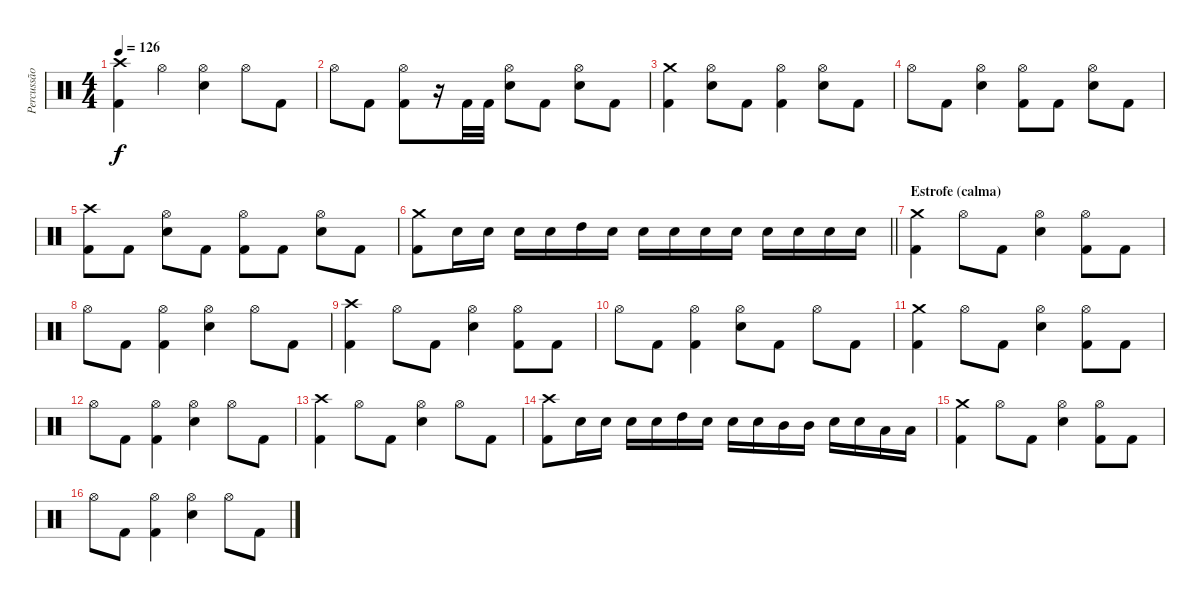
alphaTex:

\track ("Percussão" "Percussão") {instrument percussion}
\staff {score}
\articulation defaults
\ts (4 4)
\tempo 126
\clef neutral
\ks c
("Crash high (hit)" "Kick (hit) 2").4{dy f} "Hi-Hat (open)".4 ("Hi-Hat (open)" "Electric Snare (hit)").4 "Hi-Hat (open)".8 "Kick (hit) 2".8 |
"Hi-Hat (open)".8 "Kick (hit) 2".8 ("Hi-Hat (open)" "Kick (hit) 2").8 r.16 "Kick (hit) 2".32 "Kick (hit) 2".32 ("Hi-Hat (open)" "Electric Snare (hit)").8 "Kick (hit) 2".8 ("Hi-Hat (open)" "Electric Snare (hit)").8 "Kick (hit) 2".8 |
("Crash medium (hit)" "Kick (hit) 2").4 ("Hi-Hat (open)" "Electric Snare (hit)").8 "Kick (hit) 2".8 ("Hi-Hat (open)" "Kick (hit) 2").4 ("Hi-Hat (open)" "Electric Snare (hit)").8 "Kick (hit) 2".8 |
"Hi-Hat (open)".8 "Kick (hit) 2".8 ("Hi-Hat (open)" "Electric Snare (hit)").4 ("Hi-Hat (open)" "Kick (hit) 2").8 "Kick (hit) 2".8 ("Hi-Hat (open)" "Electric Snare (hit)").8 "Kick (hit) 2".8 |
("Crash high (hit)" "Kick (hit) 2").8 "Kick (hit) 2".8 ("Hi-Hat (open)" "Electric Snare (hit)").8 "Kick (hit) 2".8 ("Hi-Hat (open)" "Kick (hit) 2").8 "Kick (hit) 2".8 ("Hi-Hat (open)" "Electric Snare (hit)").8 "Kick (hit) 2".8 |
\barLineRight lightlight
("Crash medium (hit)" "Kick (hit) 2").8 "Electric Snare (hit)".16 "Electric Snare (hit)".16 "Electric Snare (hit)".16 "Electric Snare (hit)".16 "High Tom (hit)".16 "Electric Snare (hit)".16 "Electric Snare (hit)".16 "Electric Snare (hit)".16 "Electric Snare (hit)".16 "Electric Snare (hit)".16 "Electric Snare (hit)".16 "Electric Snare (hit)".16 "Electric Snare (hit)".16 "Electric Snare (hit)".16 |
\section ("" "Estrofe (calma)")
("Crash medium (hit)" "Kick (hit) 2").4 "Hi-Hat (open)".8 "Kick (hit) 2".8 ("Hi-Hat (open)" "Electric Snare (hit)").4 ("Hi-Hat (open)" "Kick (hit) 2").8 "Kick (hit) 2".8 |
"Hi-Hat (open)".8 "Kick (hit) 2".8 ("Hi-Hat (open)" "Kick (hit) 2").4 ("Hi-Hat (open)" "Electric Snare (hit)").4 "Hi-Hat (open)".8 "Kick (hit) 2".8 |
("Crash high (hit)" "Kick (hit) 2").4 "Hi-Hat (open)".8 "Kick (hit) 2".8 ("Hi-Hat (open)" "Electric Snare (hit)").4 ("Hi-Hat (open)" "Kick (hit) 2").8 "Kick (hit) 2".8 |
"Hi-Hat (open)".8 "Kick (hit) 2".8 ("Hi-Hat (open)" "Kick (hit) 2").4 ("Hi-Hat (open)" "Electric Snare (hit)").8 "Kick (hit) 2".8 "Hi-Hat (open)".8 "Kick (hit) 2".8 |
("Crash medium (hit)" "Kick (hit) 2").4 "Hi-Hat (open)".8 "Kick (hit) 2".8 ("Hi-Hat (open)" "Electric Snare (hit)").4 ("Hi-Hat (open)" "Kick (hit) 2").8 "Kick (hit) 2".8 |
"Hi-Hat (open)".8 "Kick (hit) 2".8 ("Hi-Hat (open)" "Kick (hit) 2").4 ("Hi-Hat (open)" "Electric Snare (hit)").4 "Hi-Hat (open)".8 "Kick (hit) 2".8 |
("Crash high (hit)" "Kick (hit) 2").4 "Hi-Hat (open)".8 "Kick (hit) 2".8 ("Hi-Hat (open)" "Electric Snare (hit)").4 "Hi-Hat (open)".8 "Kick (hit) 2".8 |
("Crash high (hit)" "Kick (hit) 2").8 "Electric Snare (hit)".16 "Electric Snare (hit)".16 "Electric Snare (hit)".16 "Electric Snare (hit)".16 "High Tom (hit)".16 "Electric Snare (hit)".16 "Electric Snare (hit)".16 "Electric Snare (hit)".16 "Mid Tom (hit)".16 "Mid Tom (hit)".16 "Electric Snare (hit)".16 "Electric Snare (hit)".16 "Low Tom (hit)".16 "Low Tom (hit)".16 |
("Crash medium (hit)" "Kick (hit) 2").4 "Hi-Hat (open)".8 "Kick (hit) 2".8 ("Hi-Hat (open)" "Electric Snare (hit)").4 ("Hi-Hat (open)" "Kick (hit) 2").8 "Kick (hit) 2".8 |
"Hi-Hat (open)".8 "Kick (hit) 2".8 ("Hi-Hat (open)" "Kick (hit) 2").4 ("Hi-Hat (open)" "Electric Snare (hit)").4 "Hi-Hat (open)".8 "Kick (hit) 2".8
